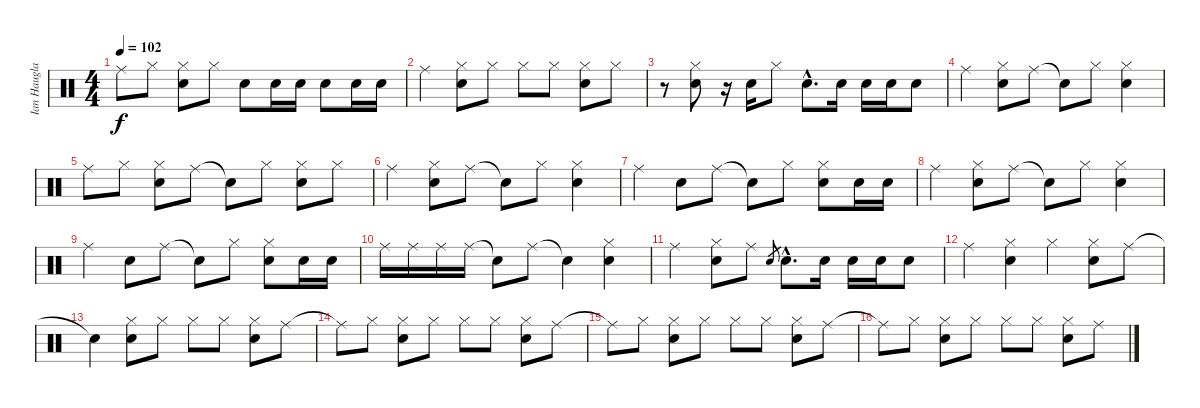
\track ("Ian Haugland Drums 2" "Ian Haugla") {instrument percussion}
\staff {score}
\articulation defaults
\ts (4 4)
\tempo 102
\clef neutral
\ks c "Ride (middle)"{t}.8{dy f} "Hi-Hat (closed)".8
("Hi-Hat (closed)" "Snare (hit) 2").8 "Hi-Hat (closed)".8 "Snare (hit) 2".8 "Snare (hit) 2".16 "Snare (hit) 2".16 "Snare (hit) 2".8 "Snare (hit) 2".16 "Snare (hit) 2".16 |
"Ride (middle)".4 ("Hi-Hat (closed)" "Snare (hit) 2").8 "Hi-Hat (closed)".8 "Hi-Hat (closed)".8 "Hi-Hat (closed)".8 ("Hi-Hat (closed)" "Snare (hit) 2").8 "Hi-Hat (closed)".8 |
r.8 ("Hi-Hat (closed)" "Snare (hit) 2").8 r.16 "Snare (hit) 2".16 "Hi-Hat (closed)".8 "Snare (hit) 2"{hac}.8{d} "Snare (hit) 2".16 "Snare (hit) 2".16 "Snare (hit) 2".16 "Snare (hit) 2".8 |
"Ride (middle)".4 ("Hi-Hat (closed)" "Snare (hit) 2").8 "Ride (middle)".8 "Snare (hit)"{t}.8 "Hi-Hat (closed)".8 ("Hi-Hat (closed)" "Snare (hit) 2").4 |
"Ride (middle)".8 "Hi-Hat (closed)".8 ("Hi-Hat (closed)" "Snare (hit) 2").8 "Ride (middle)".8 "Snare (hit)"{t}.8 "Hi-Hat (closed)".8 ("Hi-Hat (closed)" "Snare (hit) 2").8 "Hi-Hat (closed)".8 |
"Ride (middle)".4 ("Hi-Hat (closed)" "Snare (hit) 2").8 "Ride (middle)".8 "Snare (hit)"{t}.8 "Hi-Hat (closed)".8 ("Hi-Hat (closed)" "Snare (hit) 2").4 |
"Ride (middle)".4 "Snare (hit) 2".8 "Ride (middle)".8 "Snare (hit)"{t}.8 "Hi-Hat (closed)".8 ("Hi-Hat (closed)" "Snare (hit) 2").8 "Snare (hit) 2".16 "Snare (hit) 2".16 |
"Ride (middle)".4 ("Hi-Hat (closed)" "Snare (hit) 2").8 "Ride (middle)".8 "Snare (hit)"{t}.8 "Hi-Hat (closed)".8 ("Hi-Hat (closed)" "Snare (hit) 2").4 |
"Ride (middle)".4 "Snare (hit) 2".8 "Ride (middle)".8 "Snare (hit)"{t}.8 "Hi-Hat (closed)".8 ("Hi-Hat (closed)" "Snare (hit) 2").8 "Snare (hit) 2".16 "Snare (hit) 2".16 |
"Ride (middle)".16 "Ride (middle)".16 "Ride (middle)".16 "Ride (middle)".16 "Snare (hit)"{t}.8 "Ride (middle)".8 "Snare (hit)"{t}.4 ("Hi-Hat (closed)" "Snare (hit) 2").4 |
"Ride (middle)".4 ("Hi-Hat (closed)" "Snare (hit) 2").8 "Ride (middle)".8 "Snare (hit) 2".8{gr} "Snare (hit) 2"{hac}.8{d} "Snare (hit) 2".16 "Snare (hit) 2".16 "Snare (hit) 2".16 "Snare (hit) 2".8 |
"Ride (middle)".4 ("Hi-Hat (closed)" "Snare (hit) 2").4 "Hi-Hat (closed)".4 ("Hi-Hat (closed)" "Snare (hit) 2").8 "Ride (middle)".8 |
"Snare (hit)"{t}.4 ("Hi-Hat (closed)" "Snare (hit) 2").8 "Hi-Hat (closed)".8 "Hi-Hat (closed)".8 "Hi-Hat (closed)".8 ("Hi-Hat (closed)" "Snare (hit) 2").8 "Ride (middle)".8 |
"Ride (middle)"{t}.8 "Hi-Hat (closed)".8 ("Hi-Hat (closed)" "Snare (hit) 2").8 "Hi-Hat (closed)".8 "Hi-Hat (closed)".8 "Hi-Hat (closed)".8 ("Hi-Hat (closed)" "Snare (hit) 2").8 "Ride (middle)".8 |
"Ride (middle)"{t}.8 "Hi-Hat (closed)".8 ("Hi-Hat (closed)" "Snare (hit) 2").8 "Hi-Hat (closed)".8 "Hi-Hat (closed)".8 "Hi-Hat (closed)".8 ("Hi-Hat (closed)" "Snare (hit) 2").8 "Ride (middle)".8 |
"Ride (middle)"{t}.8 "Hi-Hat (closed)".8 ("Hi-Hat (closed)" "Snare (hit) 2").8 "Hi-Hat (closed)".8 "Hi-Hat (closed)".8 "Hi-Hat (closed)".8 ("Hi-Hat (closed)" "Snare (hit) 2").8 "Ride (middle)".8
